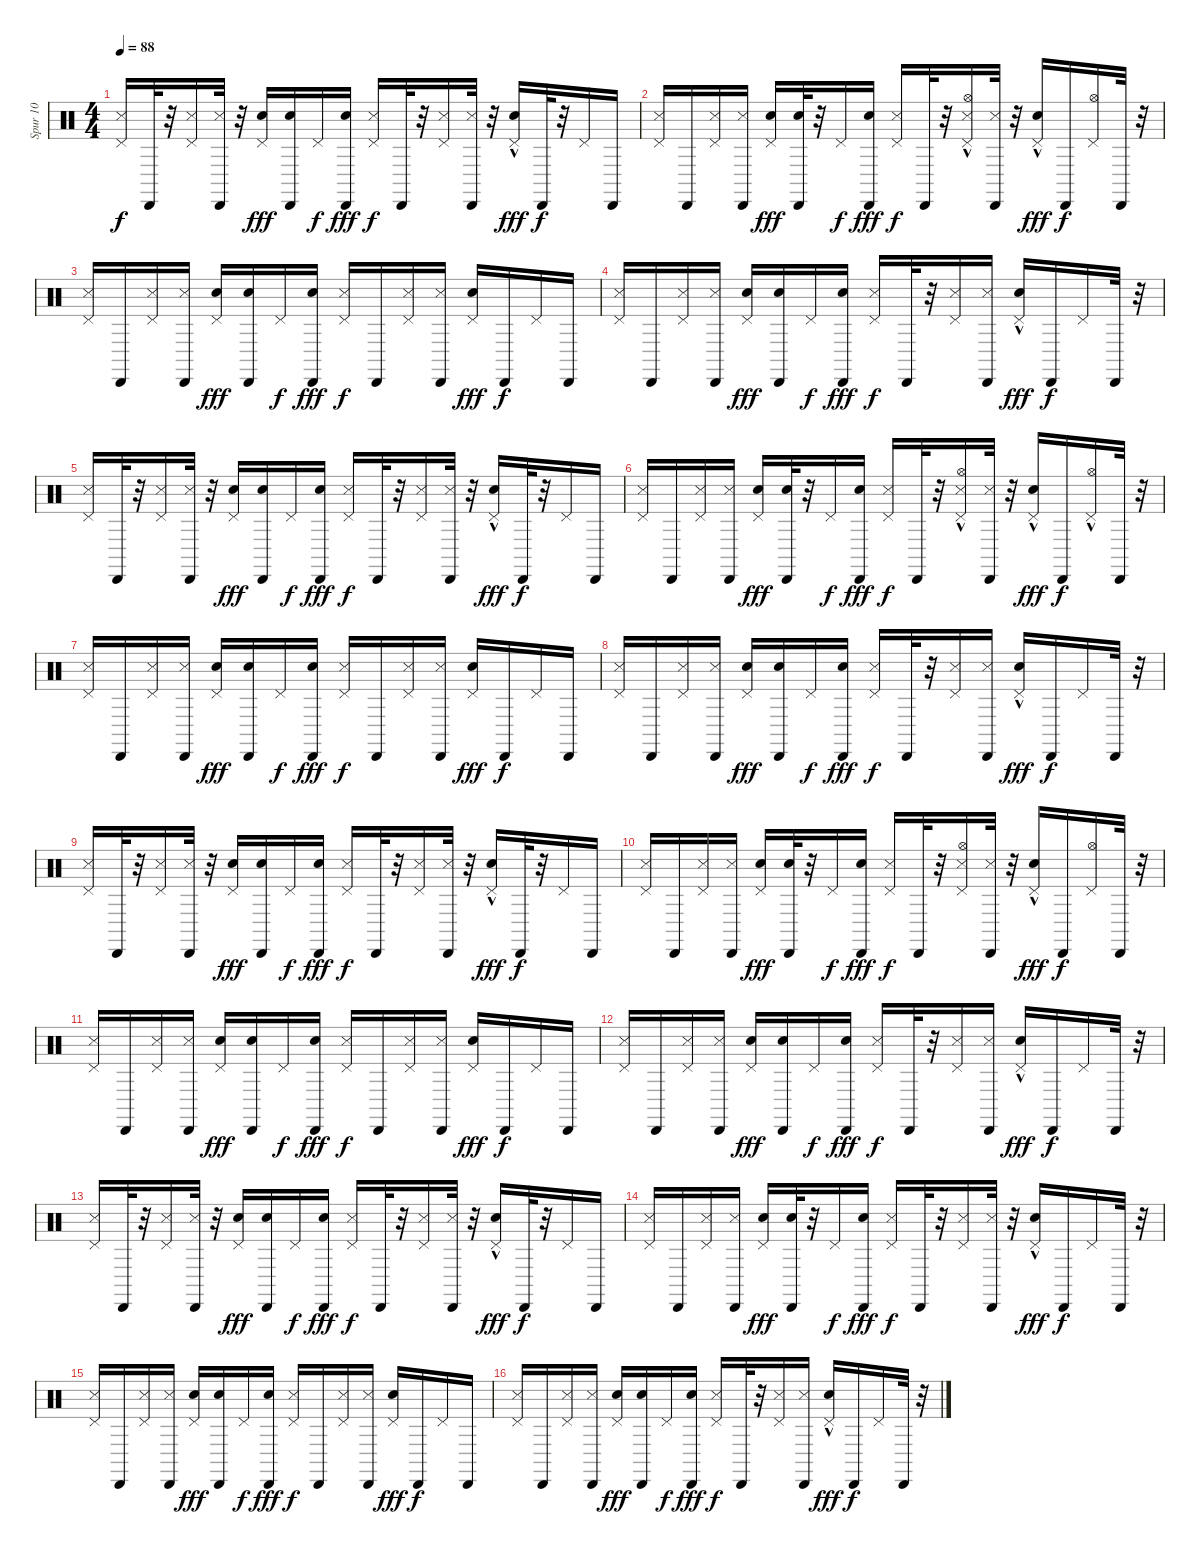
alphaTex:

\track ("Spur 10" "Spur 10") {instrument percussion}
\staff {score}
\articulation defaults
\ts (4 4)
\tempo 88
\clef neutral
\ks c
("Pedal Hi-Hat (hit)" "Metronome (hit)").16{dy f} "Cabasa (hit)".32 r.32 ("Pedal Hi-Hat (hit)" "Metronome (hit)").16 ("Cabasa (hit)" "Metronome (hit)").32 r.32 ("Pedal Hi-Hat (hit)" "Electric Snare (hit)").16{dy fff} ("Cabasa (hit)" "Electric Snare (hit)").16 "Pedal Hi-Hat (hit)".16{dy f} ("Cabasa (hit)" "Electric Snare (hit)").16{dy fff} ("Pedal Hi-Hat (hit)" "Metronome (hit)").16{dy f} "Cabasa (hit)".32 r.32 ("Pedal Hi-Hat (hit)" "Metronome (hit)").16 ("Cabasa (hit)" "Metronome (hit)").32 r.32 ("Pedal Hi-Hat (hit)" "Electric Snare (hit)"{hac}).16{dy fff} "Cabasa (hit)".32{dy f} r.32 "Pedal Hi-Hat (hit)".16 "Cabasa (hit)".16 |
("Pedal Hi-Hat (hit)" "Metronome (hit)").16 "Cabasa (hit)".16 ("Pedal Hi-Hat (hit)" "Metronome (hit)").16 ("Cabasa (hit)" "Metronome (hit)").16 ("Pedal Hi-Hat (hit)" "Electric Snare (hit)").16{dy fff} ("Cabasa (hit)" "Electric Snare (hit)").32 r.32 "Pedal Hi-Hat (hit)".16{dy f} ("Cabasa (hit)" "Electric Snare (hit)").16{dy fff} ("Pedal Hi-Hat (hit)" "Metronome (hit)").16{dy f} "Cabasa (hit)".32 r.32 ("Pedal Hi-Hat (hit)" "Metronome (hit)" "Hi-Hat (open)"{hac}).16 ("Cabasa (hit)" "Metronome (hit)").32 r.32 ("Pedal Hi-Hat (hit)" "Electric Snare (hit)"{hac}).16{dy fff} "Cabasa (hit)".16{dy f} ("Pedal Hi-Hat (hit)" "Hi-Hat (open)").16 "Cabasa (hit)".32 r.32 |
("Pedal Hi-Hat (hit)" "Metronome (hit)").16 "Cabasa (hit)".16 ("Pedal Hi-Hat (hit)" "Metronome (hit)").16 ("Cabasa (hit)" "Metronome (hit)").16 ("Pedal Hi-Hat (hit)" "Electric Snare (hit)").16{dy fff} ("Cabasa (hit)" "Electric Snare (hit)").16 "Pedal Hi-Hat (hit)".16{dy f} ("Cabasa (hit)" "Electric Snare (hit)").16{dy fff} ("Pedal Hi-Hat (hit)" "Metronome (hit)").16{dy f} "Cabasa (hit)".16 ("Pedal Hi-Hat (hit)" "Metronome (hit)").16 ("Cabasa (hit)" "Metronome (hit)").16 ("Pedal Hi-Hat (hit)" "Electric Snare (hit)").16{dy fff} "Cabasa (hit)".16{dy f} "Pedal Hi-Hat (hit)".16 "Cabasa (hit)".16 |
("Pedal Hi-Hat (hit)" "Metronome (hit)").16 "Cabasa (hit)".16 ("Metronome (hit)" "Pedal Hi-Hat (hit)").16 ("Metronome (hit)" "Cabasa (hit)").16 ("Pedal Hi-Hat (hit)" "Electric Snare (hit)").16{dy fff} ("Cabasa (hit)" "Electric Snare (hit)").16 "Pedal Hi-Hat (hit)".16{dy f} ("Cabasa (hit)" "Electric Snare (hit)").16{dy fff} ("Metronome (hit)" "Pedal Hi-Hat (hit)").16{dy f} "Cabasa (hit)".32 r.32 ("Pedal Hi-Hat (hit)" "Metronome (hit)").16 ("Cabasa (hit)" "Metronome (hit)").16 ("Pedal Hi-Hat (hit)" "Electric Snare (hit)"{hac}).16{dy fff} "Cabasa (hit)".16{dy f} "Pedal Hi-Hat (hit)".16 "Cabasa (hit)".32 r.32 |
("Pedal Hi-Hat (hit)" "Metronome (hit)").16 "Cabasa (hit)".32 r.32 ("Pedal Hi-Hat (hit)" "Metronome (hit)").16 ("Cabasa (hit)" "Metronome (hit)").32 r.32 ("Pedal Hi-Hat (hit)" "Electric Snare (hit)").16{dy fff} ("Cabasa (hit)" "Electric Snare (hit)").16 "Pedal Hi-Hat (hit)".16{dy f} ("Cabasa (hit)" "Electric Snare (hit)").16{dy fff} ("Pedal Hi-Hat (hit)" "Metronome (hit)").16{dy f} "Cabasa (hit)".32 r.32 ("Pedal Hi-Hat (hit)" "Metronome (hit)").16 ("Cabasa (hit)" "Metronome (hit)").32 r.32 ("Pedal Hi-Hat (hit)" "Electric Snare (hit)"{hac}).16{dy fff} "Cabasa (hit)".32{dy f} r.32 "Pedal Hi-Hat (hit)".16 "Cabasa (hit)".16 |
("Pedal Hi-Hat (hit)" "Metronome (hit)").16 "Cabasa (hit)".16 ("Pedal Hi-Hat (hit)" "Metronome (hit)").16 ("Cabasa (hit)" "Metronome (hit)").16 ("Pedal Hi-Hat (hit)" "Electric Snare (hit)").16{dy fff} ("Cabasa (hit)" "Electric Snare (hit)").32 r.32 "Pedal Hi-Hat (hit)".16{dy f} ("Cabasa (hit)" "Electric Snare (hit)").16{dy fff} ("Pedal Hi-Hat (hit)" "Metronome (hit)").16{dy f} "Cabasa (hit)".32 r.32 ("Pedal Hi-Hat (hit)" "Metronome (hit)" "Hi-Hat (open)"{hac}).16 ("Cabasa (hit)" "Metronome (hit)").32 r.32 ("Pedal Hi-Hat (hit)" "Electric Snare (hit)"{hac}).16{dy fff} "Cabasa (hit)".16{dy f} ("Pedal Hi-Hat (hit)" "Hi-Hat (open)"{hac}).16 "Cabasa (hit)".32 r.32 |
("Pedal Hi-Hat (hit)" "Metronome (hit)").16 "Cabasa (hit)".16 ("Pedal Hi-Hat (hit)" "Metronome (hit)").16 ("Cabasa (hit)" "Metronome (hit)").16 ("Pedal Hi-Hat (hit)" "Electric Snare (hit)").16{dy fff} ("Cabasa (hit)" "Electric Snare (hit)").16 "Pedal Hi-Hat (hit)".16{dy f} ("Cabasa (hit)" "Electric Snare (hit)").16{dy fff} ("Pedal Hi-Hat (hit)" "Metronome (hit)").16{dy f} "Cabasa (hit)".16 ("Pedal Hi-Hat (hit)" "Metronome (hit)").16 ("Cabasa (hit)" "Metronome (hit)").16 ("Pedal Hi-Hat (hit)" "Electric Snare (hit)").16{dy fff} "Cabasa (hit)".16{dy f} "Pedal Hi-Hat (hit)".16 "Cabasa (hit)".16 |
("Pedal Hi-Hat (hit)" "Metronome (hit)").16 "Cabasa (hit)".16 ("Metronome (hit)" "Pedal Hi-Hat (hit)").16 ("Metronome (hit)" "Cabasa (hit)").16 ("Pedal Hi-Hat (hit)" "Electric Snare (hit)").16{dy fff} ("Cabasa (hit)" "Electric Snare (hit)").16 "Pedal Hi-Hat (hit)".16{dy f} ("Cabasa (hit)" "Electric Snare (hit)").16{dy fff} ("Metronome (hit)" "Pedal Hi-Hat (hit)").16{dy f} "Cabasa (hit)".32 r.32 ("Pedal Hi-Hat (hit)" "Metronome (hit)").16 ("Cabasa (hit)" "Metronome (hit)").16 ("Pedal Hi-Hat (hit)" "Electric Snare (hit)"{hac}).16{dy fff} "Cabasa (hit)".16{dy f} "Pedal Hi-Hat (hit)".16 "Cabasa (hit)".32 r.32 |
("Pedal Hi-Hat (hit)" "Metronome (hit)").16 "Cabasa (hit)".32 r.32 ("Pedal Hi-Hat (hit)" "Metronome (hit)").16 ("Cabasa (hit)" "Metronome (hit)").32 r.32 ("Pedal Hi-Hat (hit)" "Electric Snare (hit)").16{dy fff} ("Cabasa (hit)" "Electric Snare (hit)").16 "Pedal Hi-Hat (hit)".16{dy f} ("Cabasa (hit)" "Electric Snare (hit)").16{dy fff} ("Pedal Hi-Hat (hit)" "Metronome (hit)").16{dy f} "Cabasa (hit)".32 r.32 ("Pedal Hi-Hat (hit)" "Metronome (hit)").16 ("Cabasa (hit)" "Metronome (hit)").32 r.32 ("Pedal Hi-Hat (hit)" "Electric Snare (hit)"{hac}).16{dy fff} "Cabasa (hit)".32{dy f} r.32 "Pedal Hi-Hat (hit)".16 "Cabasa (hit)".16 |
("Pedal Hi-Hat (hit)" "Metronome (hit)").16 "Cabasa (hit)".16 ("Pedal Hi-Hat (hit)" "Metronome (hit)").16 ("Cabasa (hit)" "Metronome (hit)").16 ("Pedal Hi-Hat (hit)" "Electric Snare (hit)").16{dy fff} ("Cabasa (hit)" "Electric Snare (hit)").32 r.32 "Pedal Hi-Hat (hit)".16{dy f} ("Cabasa (hit)" "Electric Snare (hit)").16{dy fff} ("Pedal Hi-Hat (hit)" "Metronome (hit)").16{dy f} "Cabasa (hit)".32 r.32 ("Pedal Hi-Hat (hit)" "Metronome (hit)" "Hi-Hat (open)").16 ("Cabasa (hit)" "Metronome (hit)").32 r.32 ("Pedal Hi-Hat (hit)" "Electric Snare (hit)"{hac}).16{dy fff} "Cabasa (hit)".16{dy f} ("Pedal Hi-Hat (hit)" "Hi-Hat (open)").16 "Cabasa (hit)".32 r.32 |
("Pedal Hi-Hat (hit)" "Metronome (hit)").16 "Cabasa (hit)".16 ("Pedal Hi-Hat (hit)" "Metronome (hit)").16 ("Cabasa (hit)" "Metronome (hit)").16 ("Pedal Hi-Hat (hit)" "Electric Snare (hit)").16{dy fff} ("Cabasa (hit)" "Electric Snare (hit)").16 "Pedal Hi-Hat (hit)".16{dy f} ("Cabasa (hit)" "Electric Snare (hit)").16{dy fff} ("Pedal Hi-Hat (hit)" "Metronome (hit)").16{dy f} "Cabasa (hit)".16 ("Pedal Hi-Hat (hit)" "Metronome (hit)").16 ("Cabasa (hit)" "Metronome (hit)").16 ("Pedal Hi-Hat (hit)" "Electric Snare (hit)").16{dy fff} "Cabasa (hit)".16{dy f} "Pedal Hi-Hat (hit)".16 "Cabasa (hit)".16 |
("Pedal Hi-Hat (hit)" "Metronome (hit)").16 "Cabasa (hit)".16 ("Metronome (hit)" "Pedal Hi-Hat (hit)").16 ("Metronome (hit)" "Cabasa (hit)").16 ("Pedal Hi-Hat (hit)" "Electric Snare (hit)").16{dy fff} ("Cabasa (hit)" "Electric Snare (hit)").16 "Pedal Hi-Hat (hit)".16{dy f} ("Cabasa (hit)" "Electric Snare (hit)").16{dy fff} ("Metronome (hit)" "Pedal Hi-Hat (hit)").16{dy f} "Cabasa (hit)".32 r.32 ("Pedal Hi-Hat (hit)" "Metronome (hit)").16 ("Cabasa (hit)" "Metronome (hit)").16 ("Pedal Hi-Hat (hit)" "Electric Snare (hit)"{hac}).16{dy fff} "Cabasa (hit)".16{dy f} "Pedal Hi-Hat (hit)".16 "Cabasa (hit)".32 r.32 |
("Pedal Hi-Hat (hit)" "Metronome (hit)").16 "Cabasa (hit)".32 r.32 ("Pedal Hi-Hat (hit)" "Metronome (hit)").16 ("Cabasa (hit)" "Metronome (hit)").32 r.32 ("Pedal Hi-Hat (hit)" "Electric Snare (hit)").16{dy fff} ("Cabasa (hit)" "Electric Snare (hit)").16 "Pedal Hi-Hat (hit)".16{dy f} ("Cabasa (hit)" "Electric Snare (hit)").16{dy fff} ("Pedal Hi-Hat (hit)" "Metronome (hit)").16{dy f} "Cabasa (hit)".32 r.32 ("Pedal Hi-Hat (hit)" "Metronome (hit)").16 ("Cabasa (hit)" "Metronome (hit)").32 r.32 ("Pedal Hi-Hat (hit)" "Electric Snare (hit)"{hac}).16{dy fff} "Cabasa (hit)".32{dy f} r.32 "Pedal Hi-Hat (hit)".16 "Cabasa (hit)".16 |
("Pedal Hi-Hat (hit)" "Metronome (hit)").16 "Cabasa (hit)".16 ("Pedal Hi-Hat (hit)" "Metronome (hit)").16 ("Cabasa (hit)" "Metronome (hit)").16 ("Pedal Hi-Hat (hit)" "Electric Snare (hit)").16{dy fff} ("Cabasa (hit)" "Electric Snare (hit)").32 r.32 "Pedal Hi-Hat (hit)".16{dy f} ("Cabasa (hit)" "Electric Snare (hit)").16{dy fff} ("Pedal Hi-Hat (hit)" "Metronome (hit)").16{dy f} "Cabasa (hit)".32 r.32 ("Pedal Hi-Hat (hit)" "Metronome (hit)").16 ("Cabasa (hit)" "Metronome (hit)").32 r.32 ("Pedal Hi-Hat (hit)" "Electric Snare (hit)"{hac}).16{dy fff} "Cabasa (hit)".16{dy f} "Pedal Hi-Hat (hit)".16 "Cabasa (hit)".32 r.32 |
("Pedal Hi-Hat (hit)" "Metronome (hit)").16 "Cabasa (hit)".16 ("Pedal Hi-Hat (hit)" "Metronome (hit)").16 ("Cabasa (hit)" "Metronome (hit)").16 ("Pedal Hi-Hat (hit)" "Electric Snare (hit)").16{dy fff} ("Cabasa (hit)" "Electric Snare (hit)").16 "Pedal Hi-Hat (hit)".16{dy f} ("Cabasa (hit)" "Electric Snare (hit)").16{dy fff} ("Pedal Hi-Hat (hit)" "Metronome (hit)").16{dy f} "Cabasa (hit)".16 ("Pedal Hi-Hat (hit)" "Metronome (hit)").16 ("Cabasa (hit)" "Metronome (hit)").16 ("Pedal Hi-Hat (hit)" "Electric Snare (hit)").16{dy fff} "Cabasa (hit)".16{dy f} "Pedal Hi-Hat (hit)".16 "Cabasa (hit)".16 |
("Pedal Hi-Hat (hit)" "Metronome (hit)").16 "Cabasa (hit)".16 ("Metronome (hit)" "Pedal Hi-Hat (hit)").16 ("Metronome (hit)" "Cabasa (hit)").16 ("Pedal Hi-Hat (hit)" "Electric Snare (hit)").16{dy fff} ("Cabasa (hit)" "Electric Snare (hit)").16 "Pedal Hi-Hat (hit)".16{dy f} ("Cabasa (hit)" "Electric Snare (hit)").16{dy fff} ("Metronome (hit)" "Pedal Hi-Hat (hit)").16{dy f} "Cabasa (hit)".32 r.32 ("Pedal Hi-Hat (hit)" "Metronome (hit)").16 ("Cabasa (hit)" "Metronome (hit)").16 ("Pedal Hi-Hat (hit)" "Electric Snare (hit)"{hac}).16{dy fff} "Cabasa (hit)".16{dy f} "Pedal Hi-Hat (hit)".16 "Cabasa (hit)".32 r.32
